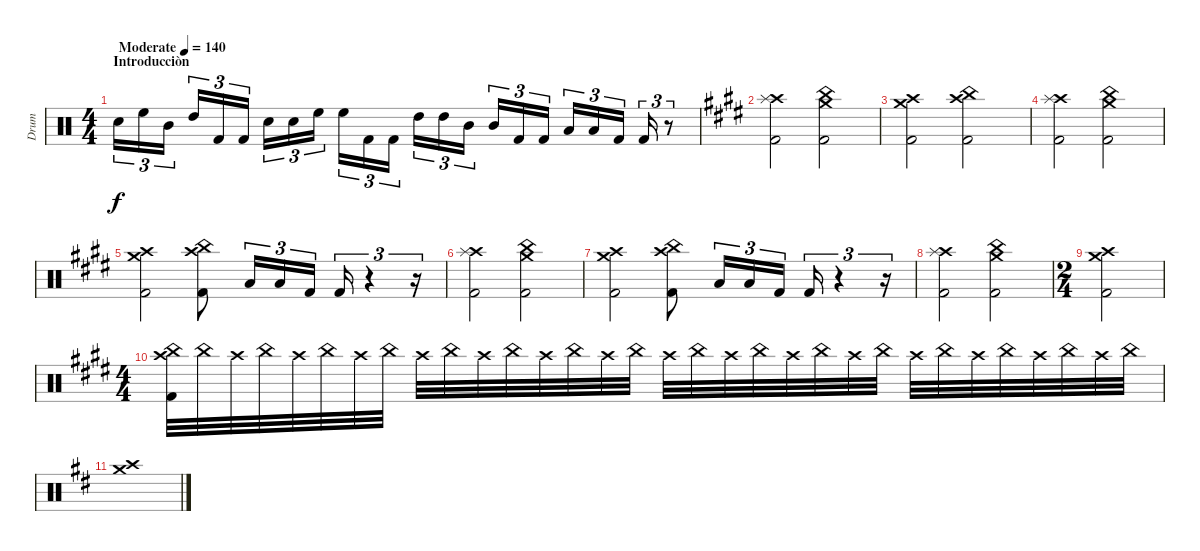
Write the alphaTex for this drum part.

\track ("Drum" "Drum") {instrument percussion}
\staff {score}
\articulation defaults
\ts (4 4)
\section ("" "Introducciòn")
\tempo (140 "Moderate")
\clef neutral
\ks c "Snare (hit) 2".16{tu (3 2) dy f} "High Floor Tom (hit)".16{tu (3 2)} "Mid Tom (hit)".16{tu (3 2) beam splitsecondary} "High Tom (hit)".16{tu (3 2)} "Kick (hit) 2".16{tu (3 2)} "Kick (hit) 2".16{tu (3 2)} "Snare (hit) 2".16{tu (3 2)} "Snare (hit) 2".16{tu (3 2)} "High Floor Tom (hit)".16{tu (3 2) beam splitsecondary} "High Floor Tom (hit)".16{tu (3 2)} "Kick (hit) 2".16{tu (3 2)} "Kick (hit) 2".16{tu (3 2)} "High Tom (hit)".16{tu (3 2)} "High Tom (hit)".16{tu (3 2)} "Mid Tom (hit)".16{tu (3 2) beam splitsecondary} "Mid Tom (hit)".16{tu (3 2)} "Kick (hit) 2".16{tu (3 2)} "Kick (hit) 2".16{tu (3 2)} "Low Tom (hit)".16{tu (3 2)} "Low Tom (hit)".16{tu (3 2)} "Kick (hit) 2".16{tu (3 2) beam splitsecondary} "Kick (hit) 2".16{tu (3 2)}
r.8{tu (3 2)} |
\ks c#minor
("Crash high (hit)" "Splash (hit)" "Kick (hit) 2").2 ("Crash medium (hit)" "China (hit)" "Kick (hit) 2").2 |
("Crash high (hit)" "Crash medium (hit)" "Kick (hit) 2").2 ("Crash high (hit)" "China (hit)" "Kick (hit) 2").2 |
("Crash high (hit)" "Splash (hit)" "Kick (hit) 2").2 ("Crash medium (hit)" "China (hit)" "Kick (hit) 2").2 |
("Crash high (hit)" "Crash medium (hit)" "Kick (hit) 2").2 ("Crash high (hit)" "China (hit)" "Kick (hit) 2").8 "Low Tom (hit)".16{tu (3 2)} "Low Tom (hit)".16{tu (3 2)} "Kick (hit) 2".16{tu (3 2)} "Kick (hit) 2".16{tu (3 2)} r.4{tu (3 2)} r.16{tu (3 2)} |
("Crash high (hit)" "Splash (hit)" "Kick (hit) 2").2 ("Crash medium (hit)" "China (hit)" "Kick (hit) 2").2 |
("Crash high (hit)" "Crash medium (hit)" "Kick (hit) 2").2 ("Crash high (hit)" "China (hit)" "Kick (hit) 2").8 "Low Tom (hit)".16{tu (3 2)} "Low Tom (hit)".16{tu (3 2)} "Kick (hit) 2".16{tu (3 2)} "Kick (hit) 2".16{tu (3 2)} r.4{tu (3 2)} r.16{tu (3 2)} |
("Crash high (hit)" "Splash (hit)" "Kick (hit) 2").2 ("Crash medium (hit)" "China (hit)" "Kick (hit) 2").2 |
\ts (2 4)
("Crash high (hit)" "Crash medium (hit)" "Kick (hit) 2").2 |
\ts (4 4)
("Crash high (hit)" "China (hit)" "Kick (hit) 2").32 "China (hit)".32 "Crash high (hit)".32 "China (hit)".32 "Crash high (hit)".32 "China (hit)".32 "Crash high (hit)".32 "China (hit)".32 "Crash high (hit)".32 "China (hit)".32 "Crash high (hit)".32 "China (hit)".32 "Crash high (hit)".32 "China (hit)".32 "Crash high (hit)".32 "China (hit)".32 "Crash high (hit)".32 "China (hit)".32 "Crash high (hit)".32 "China (hit)".32 "Crash high (hit)".32 "China (hit)".32 "Crash high (hit)".32 "China (hit)".32 "Crash high (hit)".32 "China (hit)".32 "Crash high (hit)".32 "China (hit)".32 "Crash high (hit)".32 "China (hit)".32 "Crash high (hit)".32 "China (hit)".32 |
\ks bminor
("Crash high (hit)" "Crash medium (hit)").1
